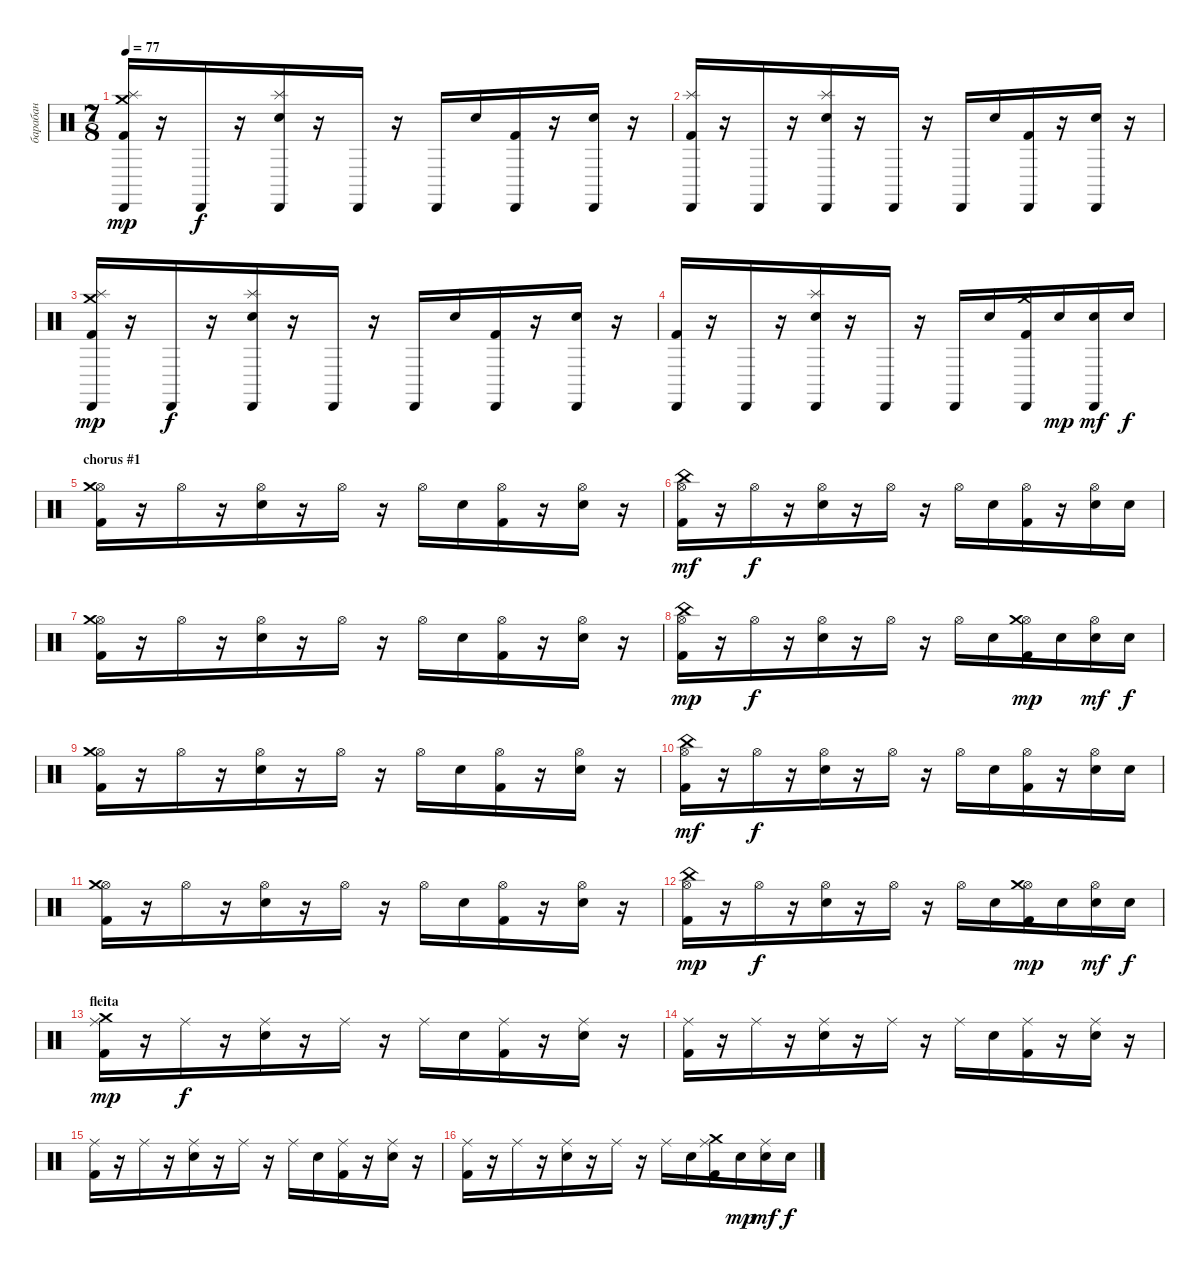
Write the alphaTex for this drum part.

\track ("барабан" "барабан") {instrument percussion}
\staff {score}
\articulation defaults
\ts (7 8)
\tempo 77
\clef neutral
\ks c
("Cabasa (hit)" "Splash (hit)" "Crash medium (hit)" "Kick (hit) 2").16{dy mp} r.16 "Cabasa (hit)".16{dy f} r.16 ("Cabasa (hit)" "Splash (hit)" "Electric Snare (hit)").16 r.16 "Cabasa (hit)".16 r.16 "Cabasa (hit)".16 "Electric Snare (hit)".16 ("Cabasa (hit)" "Kick (hit) 2").16 r.16 ("Cabasa (hit)" "Electric Snare (hit)").16 r.16 |
("Cabasa (hit)" "Splash (hit)" "Kick (hit) 2").16 r.16 "Cabasa (hit)".16 r.16 ("Cabasa (hit)" "Splash (hit)" "Electric Snare (hit)").16 r.16 "Cabasa (hit)".16 r.16 "Cabasa (hit)".16 "Electric Snare (hit)".16 ("Cabasa (hit)" "Kick (hit) 2").16 r.16 ("Cabasa (hit)" "Electric Snare (hit)").16 r.16 |
("Cabasa (hit)" "Splash (hit)" "Crash medium (hit)" "Kick (hit) 2").16{dy mp} r.16 "Cabasa (hit)".16{dy f} r.16 ("Cabasa (hit)" "Splash (hit)" "Electric Snare (hit)").16 r.16 "Cabasa (hit)".16 r.16 "Cabasa (hit)".16 "Electric Snare (hit)".16 ("Cabasa (hit)" "Kick (hit) 2").16 r.16 ("Cabasa (hit)" "Electric Snare (hit)").16 r.16 |
("Cabasa (hit)" "Kick (hit) 2").16 r.16 "Cabasa (hit)".16 r.16 ("Cabasa (hit)" "Splash (hit)" "Electric Snare (hit)").16 r.16 "Cabasa (hit)".16 r.16 "Cabasa (hit)".16 "Electric Snare (hit)".16 ("Cabasa (hit)" "Crash medium (hit)" "Kick (hit) 2").16 "Electric Snare (hit)".16{dy mp} ("Cabasa (hit)" "Electric Snare (hit)").16{dy mf} "Electric Snare (hit)".16{dy f} |
\section ("" "chorus #1")
("Hi-Hat (open)" "Crash medium (hit)" "Kick (hit) 2").16 r.16 "Hi-Hat (open)".16 r.16 ("Hi-Hat (open)" "Electric Snare (hit)").16 r.16 "Hi-Hat (open)".16 r.16 "Hi-Hat (open)".16 "Electric Snare (hit)".16 ("Hi-Hat (open)" "Kick (hit) 2").16 r.16 ("Hi-Hat (open)" "Electric Snare (hit)").16 r.16 |
("Hi-Hat (open)" "China (hit)" "Kick (hit) 2").16{dy mf} r.16 "Hi-Hat (open)".16{dy f} r.16 ("Hi-Hat (open)" "Electric Snare (hit)").16 r.16 "Hi-Hat (open)".16 r.16 "Hi-Hat (open)".16 "Electric Snare (hit)".16 ("Hi-Hat (open)" "Kick (hit) 2").16 r.16 ("Hi-Hat (open)" "Electric Snare (hit)").16 "Electric Snare (hit)".16 |
("Hi-Hat (open)" "Crash medium (hit)" "Kick (hit) 2").16 r.16 "Hi-Hat (open)".16 r.16 ("Hi-Hat (open)" "Electric Snare (hit)").16 r.16 "Hi-Hat (open)".16 r.16 "Hi-Hat (open)".16 "Electric Snare (hit)".16 ("Hi-Hat (open)" "Kick (hit) 2").16 r.16 ("Hi-Hat (open)" "Electric Snare (hit)").16 r.16 |
("Hi-Hat (open)" "China (hit)" "Kick (hit) 2").16{dy mp} r.16 "Hi-Hat (open)".16{dy f} r.16 ("Hi-Hat (open)" "Electric Snare (hit)").16 r.16 "Hi-Hat (open)".16 r.16 "Hi-Hat (open)".16 "Electric Snare (hit)".16 ("Hi-Hat (open)" "Crash medium (hit)" "Kick (hit) 2").16{dy mp} "Electric Snare (hit)".16 ("Hi-Hat (open)" "Electric Snare (hit)").16{dy mf} "Electric Snare (hit)".16{dy f} |
("Hi-Hat (open)" "Crash medium (hit)" "Kick (hit) 2").16 r.16 "Hi-Hat (open)".16 r.16 ("Hi-Hat (open)" "Electric Snare (hit)").16 r.16 "Hi-Hat (open)".16 r.16 "Hi-Hat (open)".16 "Electric Snare (hit)".16 ("Hi-Hat (open)" "Kick (hit) 2").16 r.16 ("Hi-Hat (open)" "Electric Snare (hit)").16 r.16 |
("Hi-Hat (open)" "China (hit)" "Kick (hit) 2").16{dy mf} r.16 "Hi-Hat (open)".16{dy f} r.16 ("Hi-Hat (open)" "Electric Snare (hit)").16 r.16 "Hi-Hat (open)".16 r.16 "Hi-Hat (open)".16 "Electric Snare (hit)".16 ("Hi-Hat (open)" "Kick (hit) 2").16 r.16 ("Hi-Hat (open)" "Electric Snare (hit)").16 "Electric Snare (hit)".16 |
("Hi-Hat (open)" "Crash medium (hit)" "Kick (hit) 2").16 r.16 "Hi-Hat (open)".16 r.16 ("Hi-Hat (open)" "Electric Snare (hit)").16 r.16 "Hi-Hat (open)".16 r.16 "Hi-Hat (open)".16 "Electric Snare (hit)".16 ("Hi-Hat (open)" "Kick (hit) 2").16 r.16 ("Hi-Hat (open)" "Electric Snare (hit)").16 r.16 |
("Hi-Hat (open)" "China (hit)" "Kick (hit) 2").16{dy mp} r.16 "Hi-Hat (open)".16{dy f} r.16 ("Hi-Hat (open)" "Electric Snare (hit)").16 r.16 "Hi-Hat (open)".16 r.16 "Hi-Hat (open)".16 "Electric Snare (hit)".16 ("Hi-Hat (open)" "Crash medium (hit)" "Kick (hit) 2").16{dy mp} "Electric Snare (hit)".16 ("Hi-Hat (open)" "Electric Snare (hit)").16{dy mf} "Electric Snare (hit)".16{dy f} |
\section ("" "fleita")
("Ride (middle)" "Crash medium (hit)" "Kick (hit) 2").16{dy mp} r.16 "Ride (middle)".16{dy f} r.16 ("Ride (middle)" "Electric Snare (hit)").16 r.16 "Ride (middle)".16 r.16 "Ride (middle)".16 "Electric Snare (hit)".16 ("Ride (middle)" "Kick (hit) 2").16 r.16 ("Ride (middle)" "Electric Snare (hit)").16 r.16 |
("Ride (middle)" "Kick (hit) 2").16 r.16 "Ride (middle)".16 r.16 ("Ride (middle)" "Electric Snare (hit)").16 r.16 "Ride (middle)".16 r.16 "Ride (middle)".16 "Electric Snare (hit)".16 ("Ride (middle)" "Kick (hit) 2").16 r.16 ("Ride (middle)" "Electric Snare (hit)").16 r.16 |
("Ride (middle)" "Kick (hit) 2").16 r.16 "Ride (middle)".16 r.16 ("Ride (middle)" "Electric Snare (hit)").16 r.16 "Ride (middle)".16 r.16 "Ride (middle)".16 "Electric Snare (hit)".16 ("Ride (middle)" "Kick (hit) 2").16 r.16 ("Ride (middle)" "Electric Snare (hit)").16 r.16 |
("Ride (middle)" "Kick (hit) 2").16 r.16 "Ride (middle)".16 r.16 ("Ride (middle)" "Electric Snare (hit)").16 r.16 "Ride (middle)".16 r.16 "Ride (middle)".16 "Electric Snare (hit)".16 ("Ride (middle)" "Crash medium (hit)" "Kick (hit) 2").16 "Electric Snare (hit)".16{dy mp} ("Ride (middle)" "Electric Snare (hit)").16{dy mf} "Electric Snare (hit)".16{dy f}
